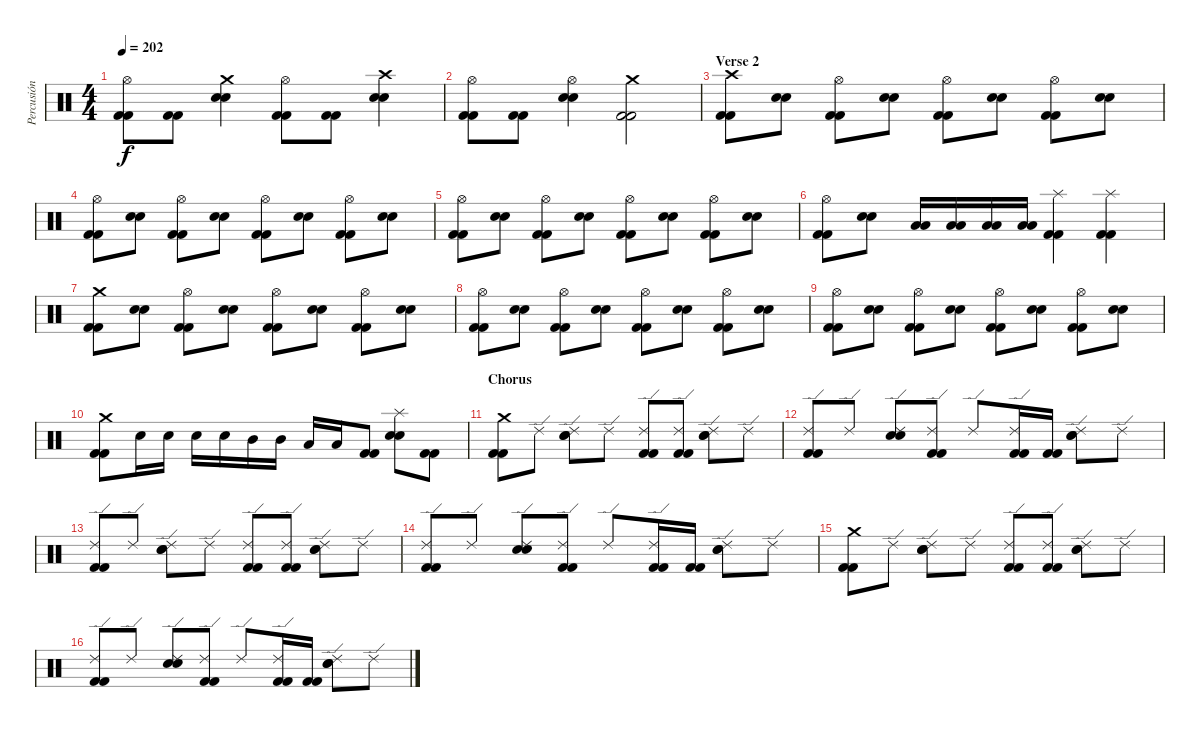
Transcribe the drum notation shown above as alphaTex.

\track ("Percusión" "Percusión") {instrument percussion}
\staff {score}
\articulation defaults
\ts (4 4)
\tempo 202
\clef neutral
\ks c
("Hi-Hat (open)" "Kick (hit) 2" "Kick (hit) 2").8{dy f} ("Kick (hit) 2" "Kick (hit) 2").8 ("Crash medium (hit)" "Snare (hit) 2" "Snare (hit) 2").4 ("Hi-Hat (open)" "Kick (hit) 2" "Kick (hit) 2").8 ("Kick (hit) 2" "Kick (hit) 2").8 ("Crash high (hit)" "Snare (hit) 2" "Snare (hit) 2").4 |
("Hi-Hat (open)" "Kick (hit) 2" "Kick (hit) 2").8 ("Kick (hit) 2" "Kick (hit) 2").8 ("Hi-Hat (open)" "Snare (hit) 2" "Snare (hit) 2").4 ("Crash medium (hit)" "Kick (hit) 2" "Kick (hit) 2").2 |
\section ("" "Verse 2")
("Crash high (hit)" "Kick (hit) 2" "Kick (hit) 2").8 ("Snare (hit) 2" "Snare (hit) 2").8 ("Hi-Hat (open)" "Kick (hit) 2" "Kick (hit) 2").8 ("Snare (hit) 2" "Snare (hit) 2").8 ("Hi-Hat (open)" "Kick (hit) 2" "Kick (hit) 2").8 ("Snare (hit) 2" "Snare (hit) 2").8 ("Hi-Hat (open)" "Kick (hit) 2" "Kick (hit) 2").8 ("Snare (hit) 2" "Snare (hit) 2").8 |
("Hi-Hat (open)" "Kick (hit) 2" "Kick (hit) 2").8 ("Snare (hit) 2" "Snare (hit) 2").8 ("Hi-Hat (open)" "Kick (hit) 2" "Kick (hit) 2").8 ("Snare (hit) 2" "Snare (hit) 2").8 ("Hi-Hat (open)" "Kick (hit) 2" "Kick (hit) 2").8 ("Snare (hit) 2" "Snare (hit) 2").8 ("Hi-Hat (open)" "Kick (hit) 2" "Kick (hit) 2").8 ("Snare (hit) 2" "Snare (hit) 2").8 |
("Hi-Hat (open)" "Kick (hit) 2" "Kick (hit) 2").8 ("Snare (hit) 2" "Snare (hit) 2").8 ("Hi-Hat (open)" "Kick (hit) 2" "Kick (hit) 2").8 ("Snare (hit) 2" "Snare (hit) 2").8 ("Hi-Hat (open)" "Kick (hit) 2" "Kick (hit) 2").8 ("Snare (hit) 2" "Snare (hit) 2").8 ("Hi-Hat (open)" "Kick (hit) 2" "Kick (hit) 2").8 ("Snare (hit) 2" "Snare (hit) 2").8 |
("Hi-Hat (open)" "Kick (hit) 2" "Kick (hit) 2").8 ("Snare (hit) 2" "Snare (hit) 2").8 ("Low Tom (hit)" "Low Tom (hit)").16 ("Low Tom (hit)" "Low Tom (hit)").16 ("Low Tom (hit)" "Low Tom (hit)").16 ("Low Tom (hit)" "Low Tom (hit)").16 ("Splash (hit)" "Kick (hit) 2" "Kick (hit) 2").4 ("Splash (hit)" "Kick (hit) 2" "Kick (hit) 2").4 |
("Crash medium (hit)" "Kick (hit) 2" "Kick (hit) 2").8 ("Snare (hit) 2" "Snare (hit) 2").8 ("Hi-Hat (open)" "Kick (hit) 2" "Kick (hit) 2").8 ("Snare (hit) 2" "Snare (hit) 2").8 ("Hi-Hat (open)" "Kick (hit) 2" "Kick (hit) 2").8 ("Snare (hit) 2" "Snare (hit) 2").8 ("Hi-Hat (open)" "Kick (hit) 2" "Kick (hit) 2").8 ("Snare (hit) 2" "Snare (hit) 2").8 |
("Hi-Hat (open)" "Kick (hit) 2" "Kick (hit) 2").8 ("Snare (hit) 2" "Snare (hit) 2").8 ("Hi-Hat (open)" "Kick (hit) 2" "Kick (hit) 2").8 ("Snare (hit) 2" "Snare (hit) 2").8 ("Hi-Hat (open)" "Kick (hit) 2" "Kick (hit) 2").8 ("Snare (hit) 2" "Snare (hit) 2").8 ("Hi-Hat (open)" "Kick (hit) 2" "Kick (hit) 2").8 ("Snare (hit) 2" "Snare (hit) 2").8 |
("Hi-Hat (open)" "Kick (hit) 2" "Kick (hit) 2").8 ("Snare (hit) 2" "Snare (hit) 2").8 ("Hi-Hat (open)" "Kick (hit) 2" "Kick (hit) 2").8 ("Snare (hit) 2" "Snare (hit) 2").8 ("Hi-Hat (open)" "Kick (hit) 2" "Kick (hit) 2").8 ("Snare (hit) 2" "Snare (hit) 2").8 ("Hi-Hat (open)" "Kick (hit) 2" "Kick (hit) 2").8 ("Snare (hit) 2" "Snare (hit) 2").8 |
("Crash medium (hit)" "Kick (hit) 2" "Kick (hit) 2").8 "Snare (hit) 2".16 "Snare (hit) 2".16 "Snare (hit) 2".16 "Snare (hit) 2".16 "Mid Tom (hit)".16 "Mid Tom (hit)".16 "Low Tom (hit)".16 "Low Tom (hit)".16 ("Kick (hit) 2" "Kick (hit) 2").8 ("Splash (hit)" "Snare (hit) 2" "Snare (hit) 2").8 ("Kick (hit) 2" "Kick (hit) 2").8 |
\section ("" "Chorus")
("Crash medium (hit)" "Kick (hit) 2" "Kick (hit) 2").8 "Ride (edge) 2".8 ("Ride (edge) 2" "Snare (hit) 2" "Snare (hit) 2").8 "Ride (edge) 2".8 ("Ride (edge) 2" "Kick (hit) 2" "Kick (hit) 2").8 ("Ride (edge) 2" "Kick (hit) 2" "Kick (hit) 2").8 ("Ride (edge) 2" "Snare (hit) 2" "Snare (hit) 2").8 "Ride (edge) 2".8 |
("Ride (edge) 2" "Kick (hit) 2" "Kick (hit) 2").8 "Ride (edge) 2".8 ("Ride (edge) 2" "Snare (hit) 2" "Snare (hit) 2").8 ("Ride (edge) 2" "Kick (hit) 2" "Kick (hit) 2").8 "Ride (edge) 2".8 ("Ride (edge) 2" "Kick (hit) 2" "Kick (hit) 2").16 ("Kick (hit) 2" "Kick (hit) 2").16 ("Ride (edge) 2" "Snare (hit) 2" "Snare (hit) 2").8 "Ride (edge) 2".8 |
("Ride (edge) 2" "Kick (hit) 2" "Kick (hit) 2").8 "Ride (edge) 2".8 ("Ride (edge) 2" "Snare (hit) 2" "Snare (hit) 2").8 "Ride (edge) 2".8 ("Ride (edge) 2" "Kick (hit) 2" "Kick (hit) 2").8 ("Ride (edge) 2" "Kick (hit) 2" "Kick (hit) 2").8 ("Ride (edge) 2" "Snare (hit) 2" "Snare (hit) 2").8 "Ride (edge) 2".8 |
("Ride (edge) 2" "Kick (hit) 2" "Kick (hit) 2").8 "Ride (edge) 2".8 ("Ride (edge) 2" "Snare (hit) 2" "Snare (hit) 2").8 ("Ride (edge) 2" "Kick (hit) 2" "Kick (hit) 2").8 "Ride (edge) 2".8 ("Ride (edge) 2" "Kick (hit) 2" "Kick (hit) 2").16 ("Kick (hit) 2" "Kick (hit) 2").16 ("Ride (edge) 2" "Snare (hit) 2" "Snare (hit) 2").8 "Ride (edge) 2".8 |
("Crash medium (hit)" "Kick (hit) 2" "Kick (hit) 2").8 "Ride (edge) 2".8 ("Ride (edge) 2" "Snare (hit) 2" "Snare (hit) 2").8 "Ride (edge) 2".8 ("Ride (edge) 2" "Kick (hit) 2" "Kick (hit) 2").8 ("Ride (edge) 2" "Kick (hit) 2" "Kick (hit) 2").8 ("Ride (edge) 2" "Snare (hit) 2" "Snare (hit) 2").8 "Ride (edge) 2".8 |
("Ride (edge) 2" "Kick (hit) 2" "Kick (hit) 2").8 "Ride (edge) 2".8 ("Ride (edge) 2" "Snare (hit) 2" "Snare (hit) 2").8 ("Ride (edge) 2" "Kick (hit) 2" "Kick (hit) 2").8 "Ride (edge) 2".8 ("Ride (edge) 2" "Kick (hit) 2" "Kick (hit) 2").16 ("Kick (hit) 2" "Kick (hit) 2").16 ("Ride (edge) 2" "Snare (hit) 2" "Snare (hit) 2").8 "Ride (edge) 2".8
